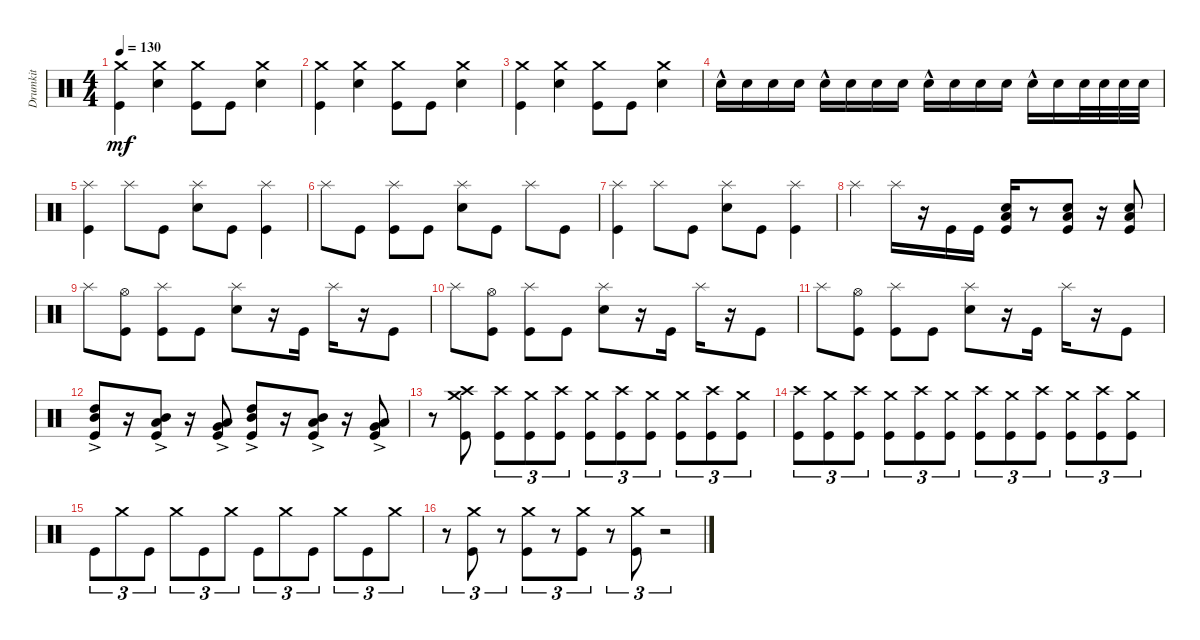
\track ("Drumkit" "Drumkit") {instrument percussion}
\staff {score}
\articulation defaults
\ts (4 4)
\tempo 130
\clef neutral
\ks c
("Kick (hit)" "Crash medium (hit)").4{dy mf} ("Snare (hit) 2" "Crash medium (hit)").4 ("Kick (hit)" "Crash medium (hit)").8 "Kick (hit)".8 ("Snare (hit) 2" "Crash medium (hit)").4 |
("Kick (hit)" "Crash medium (hit)").4 ("Snare (hit) 2" "Crash medium (hit)").4 ("Kick (hit)" "Crash medium (hit)").8 "Kick (hit)".8 ("Snare (hit) 2" "Crash medium (hit)").4 |
("Kick (hit)" "Crash medium (hit)").4 ("Snare (hit) 2" "Crash medium (hit)").4 ("Kick (hit)" "Crash medium (hit)").8 "Kick (hit)".8 ("Snare (hit) 2" "Crash medium (hit)").4 |
"Snare (hit) 2"{hac}.16 "Snare (hit) 2".16 "Snare (hit) 2".16 "Snare (hit) 2".16 "Snare (hit) 2"{hac}.16 "Snare (hit) 2".16 "Snare (hit) 2".16 "Snare (hit) 2".16 "Snare (hit) 2"{hac}.16 "Snare (hit) 2".16 "Snare (hit) 2".16 "Snare (hit) 2".16 "Snare (hit) 2"{hac}.16 "Snare (hit) 2".16 "Snare (hit) 2".32 "Snare (hit) 2".32 "Snare (hit) 2".32 "Snare (hit) 2".32 |
("Kick (hit)" "Splash (hit)").4 "Splash (hit)".8 "Kick (hit)".8 ("Snare (hit) 2" "Splash (hit)").8 "Kick (hit)".8 ("Kick (hit)" "Splash (hit)").4 |
"Splash (hit)".8 "Kick (hit)".8 ("Kick (hit)" "Splash (hit)").8 "Kick (hit)".8 ("Splash (hit)" "Snare (hit) 2").8 "Kick (hit)".8 "Splash (hit)".8 "Kick (hit)".8 |
("Kick (hit)" "Splash (hit)").4 "Splash (hit)".8 "Kick (hit)".8 ("Snare (hit) 2" "Splash (hit)").8 "Kick (hit)".8 ("Kick (hit)" "Splash (hit)").4 |
"Splash (hit)".4 "Splash (hit)".16 r.16 "Kick (hit)".16 "Kick (hit)".16 ("Kick (hit)" "Low Tom (hit)" "Snare (hit) 2").16 r.8 ("Snare (hit) 2" "Low Tom (hit)" "Kick (hit)").8 r.16 ("Kick (hit)" "Low Tom (hit)" "Snare (hit) 2").8 |
"Splash (hit)".8 ("Hi-Hat (open)" "Kick (hit)").8 ("Kick (hit)" "Splash (hit)").8 "Kick (hit)".8 ("Snare (hit) 2" "Splash (hit)").8 r.16 "Kick (hit)".16 "Splash (hit)".16 r.16 "Kick (hit)".8 |
"Splash (hit)".8 ("Hi-Hat (open)" "Kick (hit)").8 ("Kick (hit)" "Splash (hit)").8 "Kick (hit)".8 ("Snare (hit) 2" "Splash (hit)").8 r.16 "Kick (hit)".16 "Splash (hit)".16 r.16 "Kick (hit)".8 |
"Splash (hit)".8 ("Hi-Hat (open)" "Kick (hit)").8 ("Kick (hit)" "Splash (hit)").8 "Kick (hit)".8 ("Snare (hit) 2" "Splash (hit)").8 r.16 "Kick (hit)".16 "Splash (hit)".16 r.16 "Kick (hit)".8 |
("High Tom (hit)"{ac} "Mid Tom (hit)"{ac} "Kick (hit)").8 r.16 ("Mid Tom (hit)"{ac} "Low Tom (hit)"{ac} "Kick (hit)").8 r.16 ("Very Low Tom (hit)"{ac} "Low Tom (hit)"{ac} "Kick (hit)").8 ("High Tom (hit)"{ac} "Mid Tom (hit)"{ac} "Kick (hit)").8 r.16 ("Mid Tom (hit)"{ac} "Low Tom (hit)"{ac} "Kick (hit)").8 r.16 ("Very Low Tom (hit)"{ac} "Low Tom (hit)"{ac} "Kick (hit)").8 |
r.8 ("Kick (hit)" "Crash high (hit)" "Crash medium (hit)").8 ("Kick (hit)" "Crash high (hit)").8{tu (3 2)} ("Kick (hit)" "Crash medium (hit)").8{tu (3 2)} ("Kick (hit)" "Crash high (hit)").8{tu (3 2)} ("Kick (hit)" "Crash medium (hit)").8{tu (3 2)} ("Kick (hit)" "Crash high (hit)").8{tu (3 2)} ("Kick (hit)" "Crash medium (hit)").8{tu (3 2)} ("Kick (hit)" "Crash medium (hit)").8{tu (3 2)} ("Kick (hit)" "Crash high (hit)").8{tu (3 2)} ("Kick (hit)" "Crash medium (hit)").8{tu (3 2)} |
("Kick (hit)" "Crash high (hit)").8{tu (3 2)} ("Kick (hit)" "Crash medium (hit)").8{tu (3 2)} ("Kick (hit)" "Crash high (hit)").8{tu (3 2)} ("Kick (hit)" "Crash medium (hit)").8{tu (3 2)} ("Kick (hit)" "Crash high (hit)").8{tu (3 2)} ("Kick (hit)" "Crash medium (hit)").8{tu (3 2)} ("Kick (hit)" "Crash high (hit)").8{tu (3 2)} ("Kick (hit)" "Crash medium (hit)").8{tu (3 2)} ("Kick (hit)" "Crash high (hit)").8{tu (3 2)} ("Kick (hit)" "Crash medium (hit)").8{tu (3 2)} ("Kick (hit)" "Crash high (hit)").8{tu (3 2)} ("Kick (hit)" "Crash medium (hit)").8{tu (3 2)} |
"Kick (hit)".8{tu (3 2)} "Crash medium (hit)".8{tu (3 2)} "Kick (hit)".8{tu (3 2)} "Crash medium (hit)".8{tu (3 2)} "Kick (hit)".8{tu (3 2)} "Crash medium (hit)".8{tu (3 2)} "Kick (hit)".8{tu (3 2)} "Crash medium (hit)".8{tu (3 2)} "Kick (hit)".8{tu (3 2)} "Crash medium (hit)".8{tu (3 2)} "Kick (hit)".8{tu (3 2)} "Crash medium (hit)".8{tu (3 2)} |
r.8{tu (3 2)} ("Crash medium (hit)" "Kick (hit)").8{tu (3 2)} r.8{tu (3 2)} ("Crash medium (hit)" "Kick (hit)").8{tu (3 2)} r.8{tu (3 2)} ("Crash medium (hit)" "Kick (hit)").8{tu (3 2)} r.8{tu (3 2)} ("Crash medium (hit)" "Kick (hit)").8{tu (3 2)} r.2{tu (3 2)}
